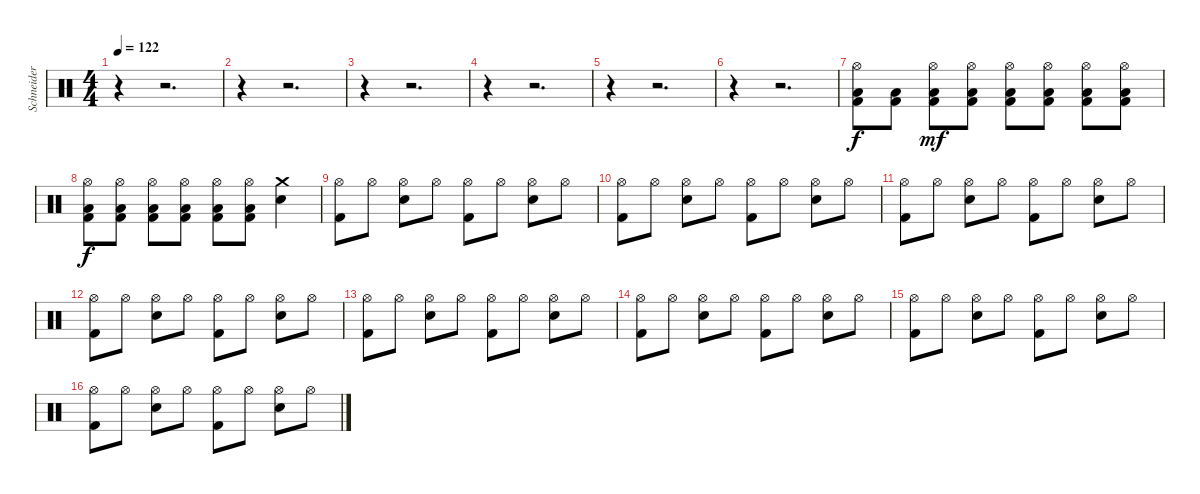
\track ("Schneider" "Schneider") {instrument percussion}
\staff {score}
\articulation defaults
\ts (4 4)
\tempo 122
\clef neutral
\ks c
r.4{dy f} r.2{d} |
r.4 r.2{d} |
r.4 r.2{d} |
r.4 r.2{d} |
r.4 r.2{d} |
r.4 r.2{d} |
("Hi-Hat (open)" "Low Floor Tom (hit)" "Kick (hit) 2").8{volume 4} ("Low Floor Tom (hit)" "Kick (hit) 2").8 ("Hi-Hat (open)" "Low Floor Tom (hit)" "Kick (hit) 2").8{dy mf} ("Hi-Hat (open)" "Low Floor Tom (hit)" "Kick (hit) 2").8 ("Hi-Hat (open)" "Low Floor Tom (hit)" "Kick (hit) 2").8 ("Hi-Hat (open)" "Low Floor Tom (hit)" "Kick (hit) 2").8 ("Hi-Hat (open)" "Low Floor Tom (hit)" "Kick (hit) 2").8 ("Hi-Hat (open)" "Low Floor Tom (hit)" "Kick (hit) 2").8 |
("Hi-Hat (open)" "Low Floor Tom (hit)" "Kick (hit) 2").8{dy f volume 6} ("Hi-Hat (open)" "Low Floor Tom (hit)" "Kick (hit) 2").8 ("Hi-Hat (open)" "Low Floor Tom (hit)" "Kick (hit) 2").8 ("Hi-Hat (open)" "Low Floor Tom (hit)" "Kick (hit) 2").8 ("Hi-Hat (open)" "Low Floor Tom (hit)" "Kick (hit) 2").8 ("Hi-Hat (open)" "Low Floor Tom (hit)" "Kick (hit) 2").8 ("Crash medium (hit)" "Snare (hit) 2").4 |
("Hi-Hat (open)" "Kick (hit) 2").8 "Hi-Hat (open)".8 ("Hi-Hat (open)" "Snare (hit) 2").8 "Hi-Hat (open)".8 ("Hi-Hat (open)" "Kick (hit) 2").8 "Hi-Hat (open)".8 ("Hi-Hat (open)" "Snare (hit) 2").8 "Hi-Hat (open)".8 |
("Hi-Hat (open)" "Kick (hit) 2").8 "Hi-Hat (open)".8 ("Hi-Hat (open)" "Snare (hit) 2").8 "Hi-Hat (open)".8 ("Hi-Hat (open)" "Kick (hit) 2").8 "Hi-Hat (open)".8 ("Hi-Hat (open)" "Snare (hit) 2").8 "Hi-Hat (open)".8 |
("Hi-Hat (open)" "Kick (hit) 2").8 "Hi-Hat (open)".8 ("Hi-Hat (open)" "Snare (hit) 2").8 "Hi-Hat (open)".8 ("Hi-Hat (open)" "Kick (hit) 2").8 "Hi-Hat (open)".8 ("Hi-Hat (open)" "Snare (hit) 2").8 "Hi-Hat (open)".8 |
("Hi-Hat (open)" "Kick (hit) 2").8 "Hi-Hat (open)".8 ("Hi-Hat (open)" "Snare (hit) 2").8 "Hi-Hat (open)".8 ("Hi-Hat (open)" "Kick (hit) 2").8 "Hi-Hat (open)".8 ("Hi-Hat (open)" "Snare (hit) 2").8 "Hi-Hat (open)".8 |
("Hi-Hat (open)" "Kick (hit) 2").8 "Hi-Hat (open)".8 ("Hi-Hat (open)" "Snare (hit) 2").8 "Hi-Hat (open)".8 ("Hi-Hat (open)" "Kick (hit) 2").8 "Hi-Hat (open)".8 ("Hi-Hat (open)" "Snare (hit) 2").8 "Hi-Hat (open)".8 |
("Hi-Hat (open)" "Kick (hit) 2").8 "Hi-Hat (open)".8 ("Hi-Hat (open)" "Snare (hit) 2").8 "Hi-Hat (open)".8 ("Hi-Hat (open)" "Kick (hit) 2").8 "Hi-Hat (open)".8 ("Hi-Hat (open)" "Snare (hit) 2").8 "Hi-Hat (open)".8 |
("Hi-Hat (open)" "Kick (hit) 2").8 "Hi-Hat (open)".8 ("Hi-Hat (open)" "Snare (hit) 2").8 "Hi-Hat (open)".8 ("Hi-Hat (open)" "Kick (hit) 2").8 "Hi-Hat (open)".8 ("Hi-Hat (open)" "Snare (hit) 2").8 "Hi-Hat (open)".8 |
("Hi-Hat (open)" "Kick (hit) 2").8 "Hi-Hat (open)".8 ("Hi-Hat (open)" "Snare (hit) 2").8 "Hi-Hat (open)".8 ("Hi-Hat (open)" "Kick (hit) 2").8 "Hi-Hat (open)".8 ("Hi-Hat (open)" "Snare (hit) 2").8 "Hi-Hat (open)".8
